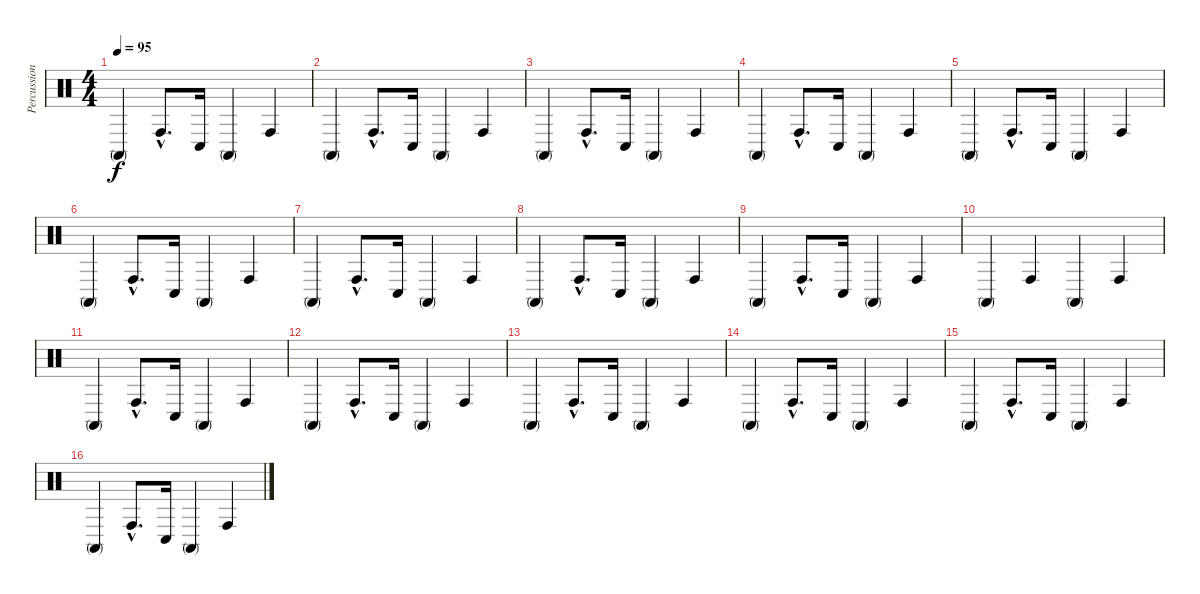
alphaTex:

\track ("Percussion" "Percussion") {instrument percussion}
\staff {score}
\articulation defaults
\ts (4 4)
\tempo 95
\clef neutral
\ks c "Conga high (mute)".4{dy f} "Conga high (hit)"{hac}.8{d} "Conga low (hit)".16 "Conga high (mute)".4 "Conga high (hit)".4
|
"Conga high (mute)".4 "Conga high (hit)"{hac}.8{d} "Conga low (hit)".16 "Conga high (mute)".4 "Conga high (hit)".4 |
"Conga high (mute)".4 "Conga high (hit)"{hac}.8{d} "Conga low (hit)".16 "Conga high (mute)".4 "Conga high (hit)".4 |
"Conga high (mute)".4 "Conga high (hit)"{hac}.8{d} "Conga low (hit)".16 "Conga high (mute)".4 "Conga high (hit)".4 |
"Conga high (mute)".4 "Conga high (hit)"{hac}.8{d} "Conga low (hit)".16 "Conga high (mute)".4 "Conga high (hit)".4 |
"Conga high (mute)".4 "Conga high (hit)"{hac}.8{d} "Conga low (hit)".16 "Conga high (mute)".4 "Conga high (hit)".4 |
"Conga high (mute)".4 "Conga high (hit)"{hac}.8{d} "Conga low (hit)".16 "Conga high (mute)".4 "Conga high (hit)".4 |
"Conga high (mute)".4 "Conga high (hit)"{hac}.8{d} "Conga low (hit)".16 "Conga high (mute)".4 "Conga high (hit)".4 |
"Conga high (mute)".4 "Conga high (hit)"{hac}.8{d} "Conga low (hit)".16 "Conga high (mute)".4 "Conga high (hit)".4 |
"Conga high (mute)".4 "Conga high (hit)".4 "Conga high (mute)".4 "Conga high (hit)".4 |
"Conga high (mute)".4 "Conga high (hit)"{hac}.8{d} "Conga low (hit)".16 "Conga high (mute)".4 "Conga high (hit)".4 |
"Conga high (mute)".4 "Conga high (hit)"{hac}.8{d} "Conga low (hit)".16 "Conga high (mute)".4 "Conga high (hit)".4 |
"Conga high (mute)".4 "Conga high (hit)"{hac}.8{d} "Conga low (hit)".16 "Conga high (mute)".4 "Conga high (hit)".4 |
"Conga high (mute)".4 "Conga high (hit)"{hac}.8{d} "Conga low (hit)".16 "Conga high (mute)".4 "Conga high (hit)".4 |
"Conga high (mute)".4 "Conga high (hit)"{hac}.8{d} "Conga low (hit)".16 "Conga high (mute)".4 "Conga high (hit)".4 |
"Conga high (mute)".4 "Conga high (hit)"{hac}.8{d} "Conga low (hit)".16 "Conga high (mute)".4 "Conga high (hit)".4
